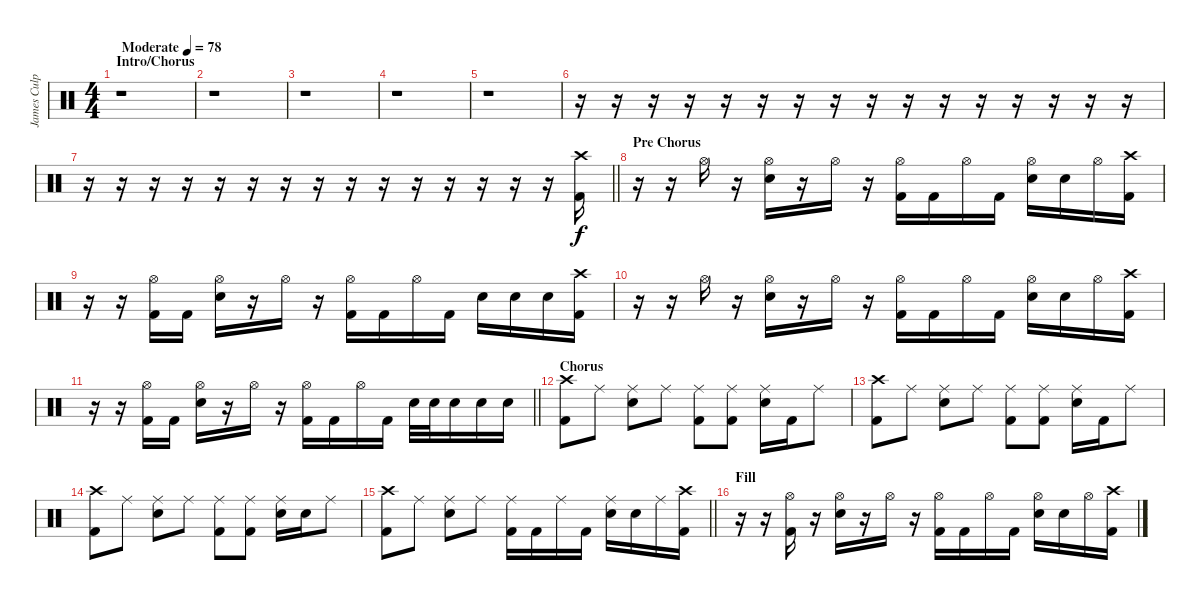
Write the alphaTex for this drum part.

\track ("James Culpepper" "James Culp") {instrument percussion}
\staff {score}
\articulation defaults
\ts (4 4)
\section ("" "Intro/Chorus")
\tempo (78 "Moderate")
\clef neutral
\ks c
r.1{dy f} |
r.1 |
r.1 |
r.1 |
r.1 |
r.16 r.16 r.16 r.16 r.16 r.16 r.16 r.16 r.16 r.16 r.16 r.16 r.16 r.16 r.16 r.16 |
\barLineRight lightlight
r.16 r.16 r.16 r.16 r.16 r.16 r.16 r.16 r.16 r.16 r.16 r.16 r.16 r.16 r.16 ("Crash high (hit)" "Kick (hit) 2").16 |
\section ("" "Pre Chorus")
r.16 r.16 "Hi-Hat (open)".16 r.16 ("Hi-Hat (open)" "Snare (hit) 2").16 r.16 "Hi-Hat (open)".16 r.16 ("Hi-Hat (open)" "Kick (hit) 2").16 "Kick (hit) 2".16 "Hi-Hat (open)".16 "Kick (hit) 2".16 ("Hi-Hat (open)" "Snare (hit) 2").16 "Snare (hit) 2".16 "Hi-Hat (open)".16 ("Crash high (hit)" "Kick (hit) 2").16 |
r.16 r.16 ("Hi-Hat (open)" "Kick (hit) 2").16 "Kick (hit) 2".16 ("Hi-Hat (open)" "Snare (hit) 2").16 r.16 "Hi-Hat (open)".16 r.16 ("Hi-Hat (open)" "Kick (hit) 2").16 "Kick (hit) 2".16 "Hi-Hat (open)".16 "Kick (hit) 2".16 "Snare (hit) 2".16 "Snare (hit) 2".16 "Snare (hit) 2".16 ("Crash high (hit)" "Kick (hit) 2").16 |
r.16 r.16 "Hi-Hat (open)".16 r.16 ("Hi-Hat (open)" "Snare (hit) 2").16 r.16 "Hi-Hat (open)".16 r.16 ("Hi-Hat (open)" "Kick (hit) 2").16 "Kick (hit) 2".16 "Hi-Hat (open)".16 "Kick (hit) 2".16 ("Hi-Hat (open)" "Snare (hit) 2").16 "Snare (hit) 2".16 "Hi-Hat (open)".16 ("Crash high (hit)" "Kick (hit) 2").16 |
\barLineRight lightlight
r.16 r.16 ("Hi-Hat (open)" "Kick (hit) 2").16 "Kick (hit) 2".16 ("Hi-Hat (open)" "Snare (hit) 2").16 r.16 "Hi-Hat (open)".16 r.16 ("Hi-Hat (open)" "Kick (hit) 2").16 "Kick (hit) 2".16 "Hi-Hat (open)".16 "Kick (hit) 2".16 "Snare (hit) 2".32 "Snare (hit) 2".32 "Snare (hit) 2".16 "Snare (hit) 2".16 "Snare (hit) 2".16 |
\section ("" "Chorus")
("Crash high (hit)" "Kick (hit) 2").8 "Ride (middle)".8 ("Ride (middle)" "Snare (hit) 2").8 "Ride (middle)".8 ("Ride (middle)" "Kick (hit) 2").8 ("Ride (middle)" "Kick (hit) 2").8 ("Ride (middle)" "Snare (hit) 2").16 "Kick (hit) 2".16 "Ride (middle)".8 |
("Crash high (hit)" "Kick (hit) 2").8 "Ride (middle)".8 ("Ride (middle)" "Snare (hit) 2").8 "Ride (middle)".8 ("Ride (middle)" "Kick (hit) 2").8 ("Ride (middle)" "Kick (hit) 2").8 ("Ride (middle)" "Snare (hit) 2").16 "Kick (hit) 2".16 "Ride (middle)".8 |
("Crash high (hit)" "Kick (hit) 2").8 "Ride (middle)".8 ("Ride (middle)" "Snare (hit) 2").8 "Ride (middle)".8 ("Ride (middle)" "Kick (hit) 2").8 ("Ride (middle)" "Kick (hit) 2").8 ("Ride (middle)" "Snare (hit) 2").16 "Snare (hit) 2".16 "Ride (middle)".8 |
\barLineRight lightlight
("Crash high (hit)" "Kick (hit) 2").8 "Ride (middle)".8 ("Ride (middle)" "Snare (hit) 2").8 "Ride (middle)".8 ("Ride (middle)" "Kick (hit) 2").16 "Kick (hit) 2".16 "Ride (middle)".16 "Kick (hit) 2".16 ("Ride (middle)" "Snare (hit) 2").16 "Snare (hit) 2".16 "Ride (middle)".16 ("Crash high (hit)" "Kick (hit) 2").16 |
\section ("" "Fill")
r.16 r.16 ("Hi-Hat (open)" "Kick (hit) 2").16 r.16 ("Hi-Hat (open)" "Snare (hit) 2").16 r.16 "Hi-Hat (open)".16 r.16 ("Hi-Hat (open)" "Kick (hit) 2").16 "Kick (hit) 2".16 "Hi-Hat (open)".16 "Kick (hit) 2".16 ("Hi-Hat (open)" "Snare (hit) 2").16 "Snare (hit) 2".16 "Hi-Hat (open)".16 ("Crash high (hit)" "Kick (hit) 2").16
